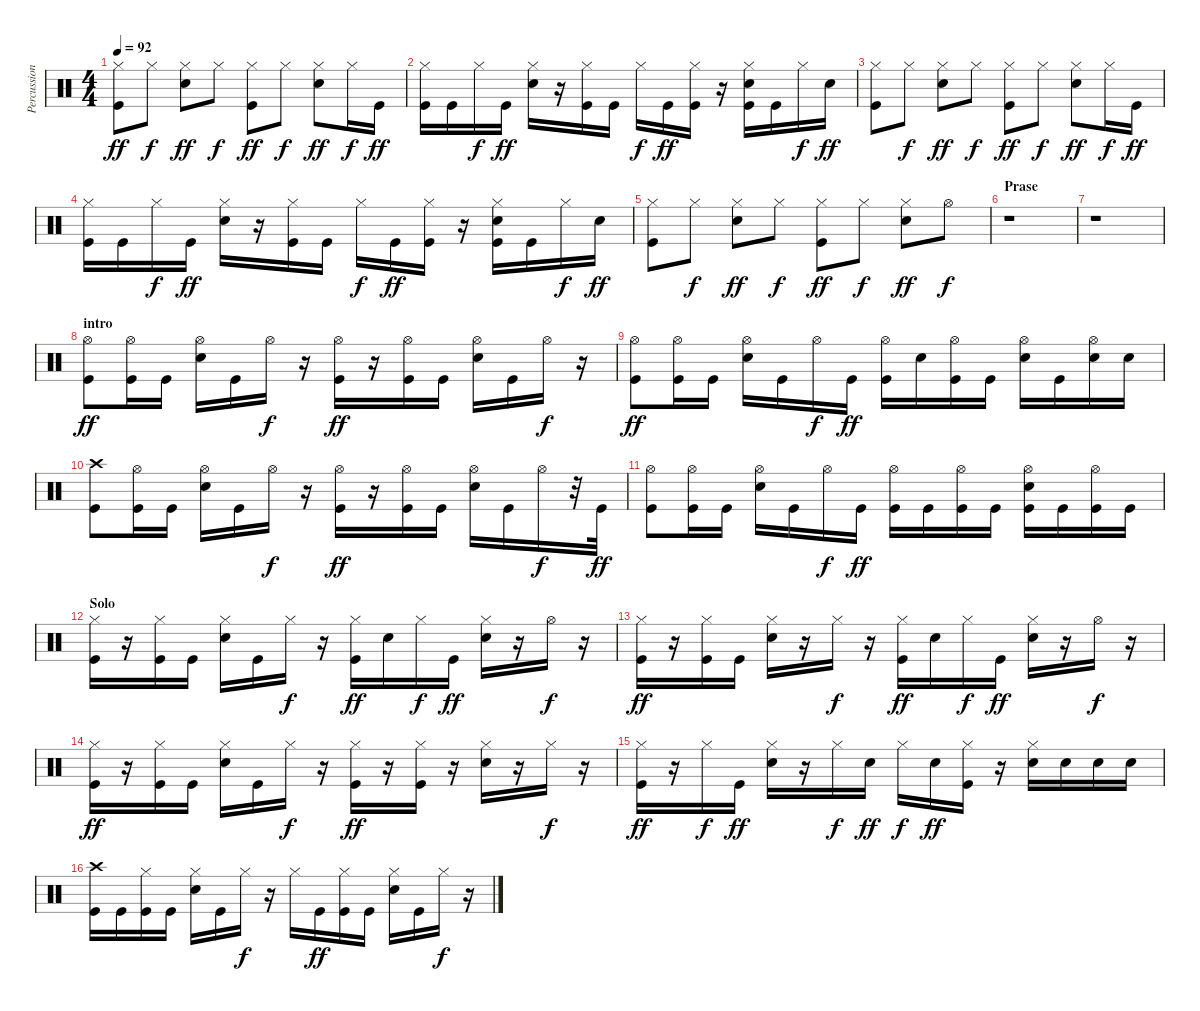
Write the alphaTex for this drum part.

\track ("Percussions" "Percussion") {instrument percussion}
\staff {score}
\articulation defaults
\ts (4 4)
\tempo 92
\clef neutral
\ks c
("Hi-Hat (closed)" "Kick (hit)").8{dy ff} "Hi-Hat (closed)".8{dy f} ("Hi-Hat (closed)" "Snare (hit) 2").8{dy ff} "Hi-Hat (closed)".8{dy f} ("Hi-Hat (closed)" "Kick (hit)").8{dy ff} "Hi-Hat (closed)".8{dy f} ("Hi-Hat (closed)" "Snare (hit) 2").8{dy ff} "Hi-Hat (closed)".16{dy f} "Kick (hit)".16{dy ff} |
("Hi-Hat (closed)" "Kick (hit)").16 "Kick (hit)".16 "Hi-Hat (closed)".16{dy f} "Kick (hit)".16{dy ff} ("Hi-Hat (closed)" "Snare (hit) 2").16 r.16 ("Hi-Hat (closed)" "Kick (hit)").16 "Kick (hit)".16 "Hi-Hat (closed)".16{dy f} "Kick (hit)".16{dy ff} ("Hi-Hat (closed)" "Kick (hit)").16 r.16 ("Hi-Hat (closed)" "Snare (hit) 2" "Kick (hit)").16 "Kick (hit)".16 "Hi-Hat (closed)".16{dy f} "Snare (hit) 2".16{dy ff} |
("Hi-Hat (closed)" "Kick (hit)").8 "Hi-Hat (closed)".8{dy f} ("Hi-Hat (closed)" "Snare (hit) 2").8{dy ff} "Hi-Hat (closed)".8{dy f} ("Hi-Hat (closed)" "Kick (hit)").8{dy ff} "Hi-Hat (closed)".8{dy f} ("Hi-Hat (closed)" "Snare (hit) 2").8{dy ff} "Hi-Hat (closed)".16{dy f} "Kick (hit)".16{dy ff} |
("Hi-Hat (closed)" "Kick (hit)").16 "Kick (hit)".16 "Hi-Hat (closed)".16{dy f} "Kick (hit)".16{dy ff} ("Hi-Hat (closed)" "Snare (hit) 2").16 r.16 ("Hi-Hat (closed)" "Kick (hit)").16 "Kick (hit)".16 "Hi-Hat (closed)".16{dy f} "Kick (hit)".16{dy ff} ("Hi-Hat (closed)" "Kick (hit)").16 r.16 ("Hi-Hat (closed)" "Snare (hit) 2" "Kick (hit)").16 "Kick (hit)".16 "Hi-Hat (closed)".16{dy f} "Snare (hit) 2".16{dy ff} |
("Hi-Hat (closed)" "Kick (hit)").8 "Hi-Hat (closed)".8{dy f} ("Hi-Hat (closed)" "Snare (hit) 2").8{dy ff} "Hi-Hat (closed)".8{dy f} ("Hi-Hat (closed)" "Kick (hit)").8{dy ff} "Hi-Hat (closed)".8{dy f} ("Hi-Hat (closed)" "Snare (hit) 2").8{dy ff} "Hi-Hat (open)".8{dy f} |
\section ("" "Prase")
r.1 |
r.1 |
\section ("" "intro")
("Hi-Hat (open)" "Kick (hit)").8{dy ff} ("Hi-Hat (open)" "Kick (hit)").16 "Kick (hit)".16 ("Hi-Hat (open)" "Snare (hit) 2").16 "Kick (hit)".16 "Hi-Hat (open)".16{dy f} r.16 ("Hi-Hat (open)" "Kick (hit)").16{dy ff} r.16 ("Hi-Hat (open)" "Kick (hit)").16 "Kick (hit)".16 ("Hi-Hat (open)" "Snare (hit) 2").16 "Kick (hit)".16 "Hi-Hat (open)".16{dy f} r.16 |
("Hi-Hat (open)" "Kick (hit)").8{dy ff} ("Hi-Hat (open)" "Kick (hit)").16 "Kick (hit)".16 ("Hi-Hat (open)" "Snare (hit) 2").16 "Kick (hit)".16 "Hi-Hat (open)".16{dy f} "Kick (hit)".16{dy ff} ("Hi-Hat (open)" "Kick (hit)").16 "Snare (hit) 2".16 ("Hi-Hat (open)" "Kick (hit)").16 "Kick (hit)".16 ("Hi-Hat (open)" "Snare (hit) 2").16 "Kick (hit)".16 ("Hi-Hat (open)" "Snare (hit) 2").16 "Snare (hit) 2".16 |
("Crash high (hit)" "Kick (hit)").8 ("Hi-Hat (open)" "Kick (hit)").16 "Kick (hit)".16 ("Hi-Hat (open)" "Snare (hit) 2").16 "Kick (hit)".16 "Hi-Hat (open)".16{dy f} r.16 ("Hi-Hat (open)" "Kick (hit)").16{dy ff} r.16 ("Hi-Hat (open)" "Kick (hit)").16 "Kick (hit)".16 ("Hi-Hat (open)" "Snare (hit) 2").16 "Kick (hit)".16 "Hi-Hat (open)".16{dy f} r.32 "Kick (hit)".32{dy ff} |
("Hi-Hat (open)" "Kick (hit)").8 ("Hi-Hat (open)" "Kick (hit)").16 "Kick (hit)".16 ("Hi-Hat (open)" "Snare (hit) 2").16 "Kick (hit)".16 "Hi-Hat (open)".16{dy f} "Kick (hit)".16{dy ff} ("Hi-Hat (open)" "Kick (hit)").16 "Kick (hit)".16 ("Hi-Hat (open)" "Kick (hit)").16 "Kick (hit)".16 ("Hi-Hat (open)" "Snare (hit) 2" "Kick (hit)").16 "Kick (hit)".16 ("Hi-Hat (open)" "Kick (hit)").16 "Kick (hit)".16 |
\section ("" "Solo")
("Hi-Hat (closed)" "Kick (hit)").16 r.16 ("Hi-Hat (closed)" "Kick (hit)").16 "Kick (hit)".16 ("Hi-Hat (closed)" "Snare (hit) 2").16 "Kick (hit)".16 "Hi-Hat (closed)".16{dy f} r.16 ("Hi-Hat (closed)" "Kick (hit)").16{dy ff} "Snare (hit) 2".16 "Hi-Hat (closed)".16{dy f} "Kick (hit)".16{dy ff} ("Hi-Hat (closed)" "Snare (hit) 2").16 r.16 "Hi-Hat (open)".16{dy f} r.16 |
("Hi-Hat (closed)" "Kick (hit)").16{dy ff} r.16 ("Hi-Hat (closed)" "Kick (hit)").16 "Kick (hit)".16 ("Hi-Hat (closed)" "Snare (hit) 2").16 r.16 "Hi-Hat (closed)".16{dy f} r.16 ("Hi-Hat (closed)" "Kick (hit)").16{dy ff} "Snare (hit) 2".16 "Hi-Hat (closed)".16{dy f} "Kick (hit)".16{dy ff} ("Hi-Hat (closed)" "Snare (hit) 2").16 r.16 "Hi-Hat (open)".16{dy f} r.16 |
("Hi-Hat (closed)" "Kick (hit)").16{dy ff} r.16 ("Hi-Hat (closed)" "Kick (hit)").16 "Kick (hit)".16 ("Hi-Hat (closed)" "Snare (hit) 2").16 "Kick (hit)".16 "Hi-Hat (closed)".16{dy f} r.16 ("Hi-Hat (closed)" "Kick (hit)").16{dy ff} r.16 ("Hi-Hat (closed)" "Kick (hit)").16 r.16 ("Hi-Hat (closed)" "Snare (hit) 2").16 r.16 "Hi-Hat (closed)".16{dy f} r.16 |
("Hi-Hat (closed)" "Kick (hit)").16{dy ff} r.16 "Hi-Hat (closed)".16{dy f} "Kick (hit)".16{dy ff} ("Hi-Hat (closed)" "Snare (hit) 2").16 r.16 "Hi-Hat (closed)".16{dy f} "Snare (hit) 2".16{dy ff} "Hi-Hat (closed)".16{dy f} "Snare (hit) 2".16{dy ff} ("Hi-Hat (closed)" "Kick (hit)").16 r.16 ("Hi-Hat (closed)" "Snare (hit) 2").16 "Snare (hit) 2".16 "Snare (hit) 2".16 "Snare (hit) 2".16 |
("Crash high (hit)" "Kick (hit)").16 "Kick (hit)".16 ("Hi-Hat (closed)" "Kick (hit)").16 "Kick (hit)".16 ("Hi-Hat (closed)" "Snare (hit) 2").16 "Kick (hit)".16 "Hi-Hat (closed)".16{dy f} r.16 "Hi-Hat (closed)".16 "Kick (hit)".16{dy ff} ("Hi-Hat (closed)" "Kick (hit)").16 "Kick (hit)".16 ("Hi-Hat (closed)" "Snare (hit) 2").16 "Kick (hit)".16 "Hi-Hat (closed)".16{dy f} r.16
